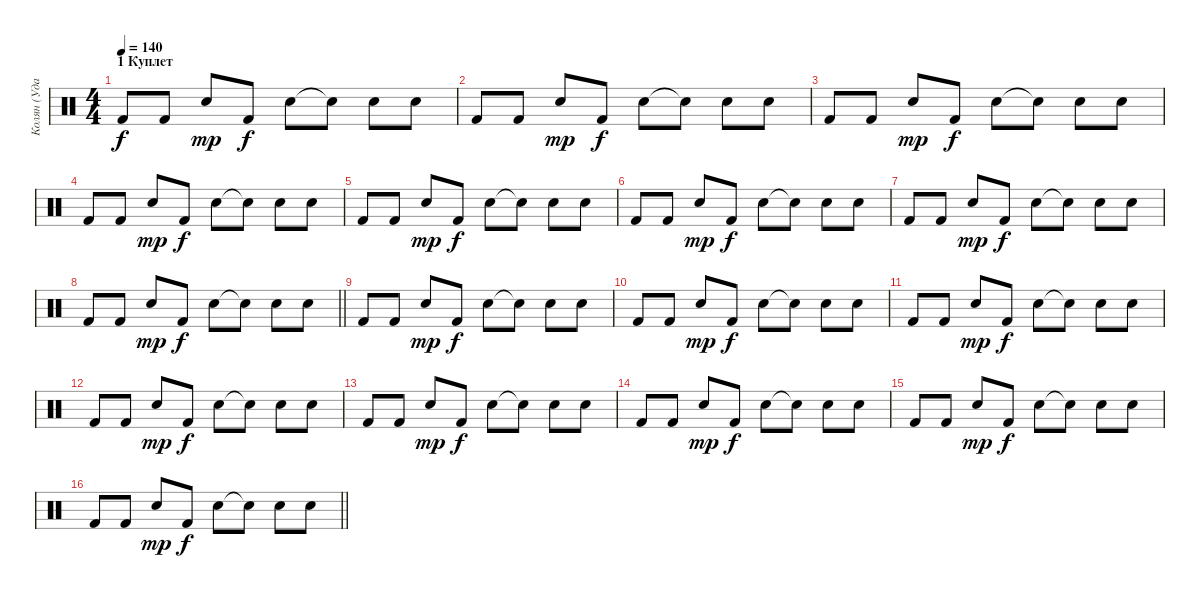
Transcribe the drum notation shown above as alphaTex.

\track ("Колян (Ударные)" "Колян (Уда") {instrument percussion}
\staff
\articulation defaults
\ts (4 4)
\section ("" "1 Куплет")
\tempo 140
\clef neutral
\ks c "Kick (hit) 2".8{dy f} "Kick (hit) 2".8 "Snare (hit) 2".8{dy mp} "Kick (hit) 2".8{dy f} "Snare (hit) 2".8 "Snare (hit)"{t}.8 "Snare (hit) 2".8 "Snare (hit) 2".8
|
"Kick (hit) 2".8 "Kick (hit) 2".8 "Snare (hit) 2".8{dy mp} "Kick (hit) 2".8{dy f} "Snare (hit) 2".8 "Snare (hit)"{t}.8 "Snare (hit) 2".8 "Snare (hit) 2".8 |
"Kick (hit) 2".8 "Kick (hit) 2".8 "Snare (hit) 2".8{dy mp} "Kick (hit) 2".8{dy f} "Snare (hit) 2".8 "Snare (hit)"{t}.8 "Snare (hit) 2".8 "Snare (hit) 2".8 |
"Kick (hit) 2".8 "Kick (hit) 2".8 "Snare (hit) 2".8{dy mp} "Kick (hit) 2".8{dy f} "Snare (hit) 2".8 "Snare (hit)"{t}.8 "Snare (hit) 2".8 "Snare (hit) 2".8 |
"Kick (hit) 2".8 "Kick (hit) 2".8 "Snare (hit) 2".8{dy mp} "Kick (hit) 2".8{dy f} "Snare (hit) 2".8 "Snare (hit)"{t}.8 "Snare (hit) 2".8 "Snare (hit) 2".8 |
"Kick (hit) 2".8 "Kick (hit) 2".8 "Snare (hit) 2".8{dy mp} "Kick (hit) 2".8{dy f} "Snare (hit) 2".8 "Snare (hit)"{t}.8 "Snare (hit) 2".8 "Snare (hit) 2".8 |
"Kick (hit) 2".8 "Kick (hit) 2".8 "Snare (hit) 2".8{dy mp} "Kick (hit) 2".8{dy f} "Snare (hit) 2".8 "Snare (hit)"{t}.8 "Snare (hit) 2".8 "Snare (hit) 2".8 |
\barLineRight lightlight "Kick (hit) 2".8 "Kick (hit) 2".8 "Snare (hit) 2".8{dy mp} "Kick (hit) 2".8{dy f} "Snare (hit) 2".8 "Snare (hit)"{t}.8 "Snare (hit) 2".8 "Snare (hit) 2".8
|
"Kick (hit) 2".8 "Kick (hit) 2".8 "Snare (hit) 2".8{dy mp} "Kick (hit) 2".8{dy f} "Snare (hit) 2".8 "Snare (hit)"{t}.8 "Snare (hit) 2".8 "Snare (hit) 2".8 |
"Kick (hit) 2".8 "Kick (hit) 2".8 "Snare (hit) 2".8{dy mp} "Kick (hit) 2".8{dy f} "Snare (hit) 2".8 "Snare (hit)"{t}.8 "Snare (hit) 2".8 "Snare (hit) 2".8 |
"Kick (hit) 2".8 "Kick (hit) 2".8 "Snare (hit) 2".8{dy mp} "Kick (hit) 2".8{dy f} "Snare (hit) 2".8 "Snare (hit)"{t}.8 "Snare (hit) 2".8 "Snare (hit) 2".8 |
"Kick (hit) 2".8 "Kick (hit) 2".8 "Snare (hit) 2".8{dy mp} "Kick (hit) 2".8{dy f} "Snare (hit) 2".8 "Snare (hit)"{t}.8 "Snare (hit) 2".8 "Snare (hit) 2".8 |
"Kick (hit) 2".8 "Kick (hit) 2".8 "Snare (hit) 2".8{dy mp} "Kick (hit) 2".8{dy f} "Snare (hit) 2".8 "Snare (hit)"{t}.8 "Snare (hit) 2".8 "Snare (hit) 2".8 |
"Kick (hit) 2".8 "Kick (hit) 2".8 "Snare (hit) 2".8{dy mp} "Kick (hit) 2".8{dy f} "Snare (hit) 2".8 "Snare (hit)"{t}.8 "Snare (hit) 2".8 "Snare (hit) 2".8 |
"Kick (hit) 2".8 "Kick (hit) 2".8 "Snare (hit) 2".8{dy mp} "Kick (hit) 2".8{dy f} "Snare (hit) 2".8 "Snare (hit)"{t}.8 "Snare (hit) 2".8 "Snare (hit) 2".8 |
\barLineRight lightlight "Kick (hit) 2".8 "Kick (hit) 2".8 "Snare (hit) 2".8{dy mp} "Kick (hit) 2".8{dy f} "Snare (hit) 2".8 "Snare (hit)"{t}.8 "Snare (hit) 2".8 "Snare (hit) 2".8
